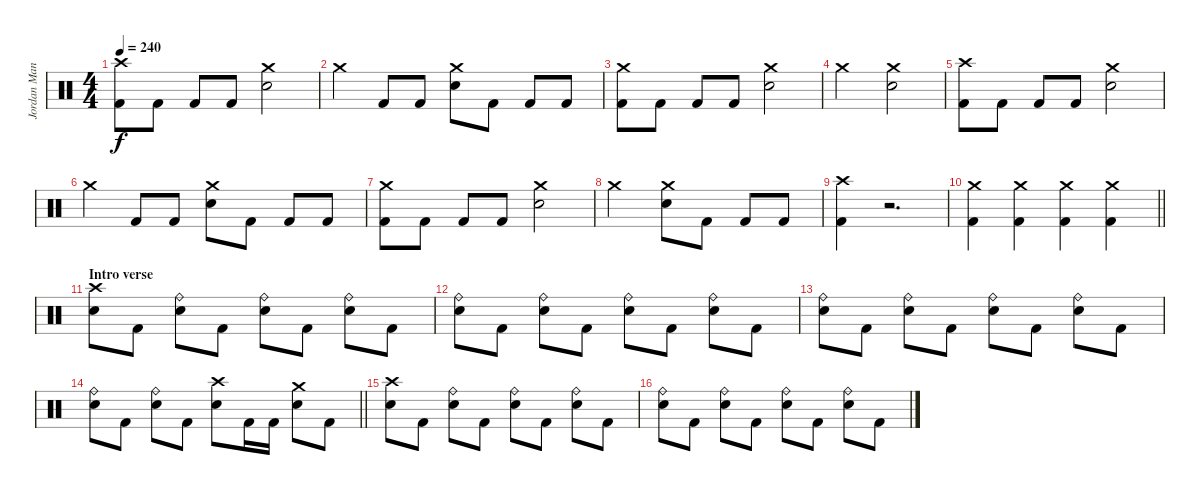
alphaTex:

\track ("Jordan Mancino" "Jordan Man") {instrument percussion}
\staff {score}
\articulation defaults
\ts (4 4)
\tempo 240
\clef neutral
\ks c
("Crash high (hit)" "Kick (hit) 2").8{dy f} "Kick (hit) 2".8 "Kick (hit) 2".8 "Kick (hit) 2".8 ("Crash medium (hit)" "Electric Snare (hit)").2 |
"Crash medium (hit)".4 "Kick (hit) 2".8 "Kick (hit) 2".8 ("Crash medium (hit)" "Electric Snare (hit)").8 "Kick (hit) 2".8 "Kick (hit) 2".8 "Kick (hit) 2".8 |
("Crash medium (hit)" "Kick (hit) 2").8 "Kick (hit) 2".8 "Kick (hit) 2".8 "Kick (hit) 2".8 ("Crash medium (hit)" "Electric Snare (hit)").2 |
"Crash medium (hit)".2 ("Crash medium (hit)" "Electric Snare (hit)").2 |
("Crash high (hit)" "Kick (hit) 2").8 "Kick (hit) 2".8 "Kick (hit) 2".8 "Kick (hit) 2".8 ("Crash medium (hit)" "Electric Snare (hit)").2 |
"Crash medium (hit)".4 "Kick (hit) 2".8 "Kick (hit) 2".8 ("Crash medium (hit)" "Electric Snare (hit)").8 "Kick (hit) 2".8 "Kick (hit) 2".8 "Kick (hit) 2".8 |
("Crash medium (hit)" "Kick (hit) 2").8 "Kick (hit) 2".8 "Kick (hit) 2".8 "Kick (hit) 2".8 ("Crash medium (hit)" "Electric Snare (hit)").2 |
"Crash medium (hit)".2 ("Crash medium (hit)" "Electric Snare (hit)").8 "Kick (hit) 2".8 "Kick (hit) 2".8 "Kick (hit) 2".8 |
("Crash high (hit)" "Kick (hit) 2").4 r.2{d volume 0} |
\barLineRight lightlight
("Crash medium (hit)" "Kick (hit) 2").4{volume 16} ("Crash medium (hit)" "Kick (hit) 2").4 ("Crash medium (hit)" "Kick (hit) 2").4 ("Crash medium (hit)" "Kick (hit) 2").4 |
\section ("" "Intro verse")
("Crash high (hit)" "Electric Snare (hit)").8 "Kick (hit) 2".8 ("Ride (bell)" "Electric Snare (hit)").8 "Kick (hit) 2".8 ("Ride (bell)" "Electric Snare (hit)").8 "Kick (hit) 2".8 ("Ride (bell)" "Electric Snare (hit)").8 "Kick (hit) 2".8 |
("Ride (bell)" "Electric Snare (hit)").8 "Kick (hit) 2".8 ("Ride (bell)" "Electric Snare (hit)").8 "Kick (hit) 2".8 ("Ride (bell)" "Electric Snare (hit)").8 "Kick (hit) 2".8 ("Ride (bell)" "Electric Snare (hit)").8 "Kick (hit) 2".8 |
("Ride (bell)" "Electric Snare (hit)").8 "Kick (hit) 2".8 ("Ride (bell)" "Electric Snare (hit)").8 "Kick (hit) 2".8 ("Ride (bell)" "Electric Snare (hit)").8 "Kick (hit) 2".8 ("Ride (bell)" "Electric Snare (hit)").8 "Kick (hit) 2".8 |
\barLineRight lightlight
("Ride (bell)" "Electric Snare (hit)").8 "Kick (hit) 2".8 ("Ride (bell)" "Electric Snare (hit)").8 "Kick (hit) 2".8 ("Crash high (hit)" "Electric Snare (hit)").8 "Kick (hit) 2".16 "Kick (hit) 2".16 ("Crash medium (hit)" "Electric Snare (hit)").8 "Kick (hit) 2".8 |
("Crash high (hit)" "Electric Snare (hit)").8 "Kick (hit) 2".8 ("Ride (bell)" "Electric Snare (hit)").8 "Kick (hit) 2".8 ("Ride (bell)" "Electric Snare (hit)").8 "Kick (hit) 2".8 ("Ride (bell)" "Electric Snare (hit)").8 "Kick (hit) 2".8 |
("Ride (bell)" "Electric Snare (hit)").8 "Kick (hit) 2".8 ("Ride (bell)" "Electric Snare (hit)").8 "Kick (hit) 2".8 ("Ride (bell)" "Electric Snare (hit)").8 "Kick (hit) 2".8 ("Ride (bell)" "Electric Snare (hit)").8 "Kick (hit) 2".8
